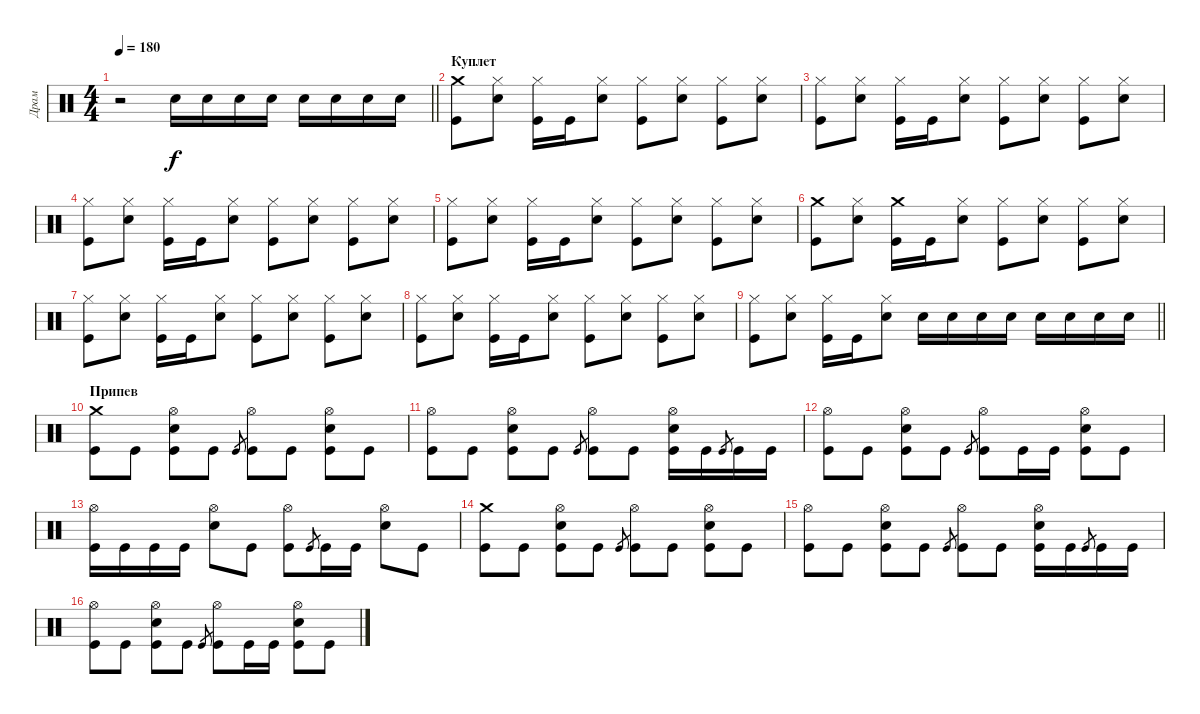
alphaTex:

\track ("Драм" "Драм") {instrument percussion}
\staff {score}
\articulation defaults
\ts (4 4)
\tempo 180
\clef neutral
\barLineRight lightlight
\ks c
r.2{dy f} "Electric Snare (hit)".16 "Electric Snare (hit)".16 "Electric Snare (hit)".16 "Electric Snare (hit)".16 "Electric Snare (hit)".16 "Electric Snare (hit)".16 "Electric Snare (hit)".16 "Electric Snare (hit)".16 |
\section ("" "Куплет")
("Kick (hit)" "Crash medium (hit)").8 ("Electric Snare (hit)" "Hi-Hat (closed)").8 ("Kick (hit)" "Hi-Hat (closed)").16 "Kick (hit)".16 ("Electric Snare (hit)" "Hi-Hat (closed)").8 ("Kick (hit)" "Hi-Hat (closed)").8 ("Electric Snare (hit)" "Hi-Hat (closed)").8 ("Kick (hit)" "Hi-Hat (closed)").8 ("Electric Snare (hit)" "Hi-Hat (closed)").8 |
("Kick (hit)" "Hi-Hat (closed)").8 ("Electric Snare (hit)" "Hi-Hat (closed)").8 ("Kick (hit)" "Hi-Hat (closed)").16 "Kick (hit)".16 ("Electric Snare (hit)" "Hi-Hat (closed)").8 ("Kick (hit)" "Hi-Hat (closed)").8 ("Electric Snare (hit)" "Hi-Hat (closed)").8 ("Kick (hit)" "Hi-Hat (closed)").8 ("Electric Snare (hit)" "Hi-Hat (closed)").8 |
("Kick (hit)" "Hi-Hat (closed)").8 ("Electric Snare (hit)" "Hi-Hat (closed)").8 ("Kick (hit)" "Hi-Hat (closed)").16 "Kick (hit)".16 ("Electric Snare (hit)" "Hi-Hat (closed)").8 ("Kick (hit)" "Hi-Hat (closed)").8 ("Electric Snare (hit)" "Hi-Hat (closed)").8 ("Kick (hit)" "Hi-Hat (closed)").8 ("Electric Snare (hit)" "Hi-Hat (closed)").8 |
("Kick (hit)" "Hi-Hat (closed)").8 ("Electric Snare (hit)" "Hi-Hat (closed)").8 ("Kick (hit)" "Hi-Hat (closed)").16 "Kick (hit)".16 ("Electric Snare (hit)" "Hi-Hat (closed)").8 ("Kick (hit)" "Hi-Hat (closed)").8 ("Electric Snare (hit)" "Hi-Hat (closed)").8 ("Kick (hit)" "Hi-Hat (closed)").8 ("Electric Snare (hit)" "Hi-Hat (closed)").8 |
("Kick (hit)" "Crash medium (hit)").8 ("Electric Snare (hit)" "Hi-Hat (closed)").8 ("Kick (hit)" "Crash medium (hit)").16 "Kick (hit)".16 ("Electric Snare (hit)" "Hi-Hat (closed)").8 ("Kick (hit)" "Hi-Hat (closed)").8 ("Electric Snare (hit)" "Hi-Hat (closed)").8 ("Kick (hit)" "Hi-Hat (closed)").8 ("Electric Snare (hit)" "Hi-Hat (closed)").8 |
("Kick (hit)" "Hi-Hat (closed)").8 ("Electric Snare (hit)" "Hi-Hat (closed)").8 ("Kick (hit)" "Hi-Hat (closed)").16 "Kick (hit)".16 ("Electric Snare (hit)" "Hi-Hat (closed)").8 ("Kick (hit)" "Hi-Hat (closed)").8 ("Electric Snare (hit)" "Hi-Hat (closed)").8 ("Kick (hit)" "Hi-Hat (closed)").8 ("Electric Snare (hit)" "Hi-Hat (closed)").8 |
("Kick (hit)" "Hi-Hat (closed)").8 ("Electric Snare (hit)" "Hi-Hat (closed)").8 ("Kick (hit)" "Hi-Hat (closed)").16 "Kick (hit)".16 ("Electric Snare (hit)" "Hi-Hat (closed)").8 ("Kick (hit)" "Hi-Hat (closed)").8 ("Electric Snare (hit)" "Hi-Hat (closed)").8 ("Kick (hit)" "Hi-Hat (closed)").8 ("Electric Snare (hit)" "Hi-Hat (closed)").8 |
\barLineRight lightlight
("Kick (hit)" "Hi-Hat (closed)").8 ("Electric Snare (hit)" "Hi-Hat (closed)").8 ("Kick (hit)" "Hi-Hat (closed)").16 "Kick (hit)".16 ("Electric Snare (hit)" "Hi-Hat (closed)").8 "Electric Snare (hit)".16 "Electric Snare (hit)".16 "Electric Snare (hit)".16 "Electric Snare (hit)".16 "Electric Snare (hit)".16 "Electric Snare (hit)".16 "Electric Snare (hit)".16 "Electric Snare (hit)".16 |
\section ("" "Припев")
("Kick (hit)" "Crash medium (hit)").8 "Kick (hit)".8 ("Kick (hit)" "Electric Snare (hit)" "Hi-Hat (open)").8 "Kick (hit)".8 "Kick (hit)".8{gr} ("Kick (hit)" "Hi-Hat (open)").8 "Kick (hit)".8 ("Kick (hit)" "Electric Snare (hit)" "Hi-Hat (open)").8 "Kick (hit)".8 |
("Kick (hit)" "Hi-Hat (open)").8 "Kick (hit)".8 ("Kick (hit)" "Electric Snare (hit)" "Hi-Hat (open)").8 "Kick (hit)".8 "Kick (hit)".8{gr} ("Kick (hit)" "Hi-Hat (open)").8 "Kick (hit)".8 ("Kick (hit)" "Electric Snare (hit)" "Hi-Hat (open)").16 "Kick (hit)".16 "Kick (hit)".8{gr} "Kick (hit)".16 "Kick (hit)".16 |
("Kick (hit)" "Hi-Hat (open)").8 "Kick (hit)".8 ("Kick (hit)" "Electric Snare (hit)" "Hi-Hat (open)").8 "Kick (hit)".8 "Kick (hit)".8{gr} ("Kick (hit)" "Hi-Hat (open)").8 "Kick (hit)".16 "Kick (hit)".16 ("Kick (hit)" "Electric Snare (hit)" "Hi-Hat (open)").8 "Kick (hit)".8 |
("Kick (hit)" "Hi-Hat (open)").16 "Kick (hit)".16 "Kick (hit)".16 "Kick (hit)".16 ("Electric Snare (hit)" "Hi-Hat (open)").8 "Kick (hit)".8 ("Kick (hit)" "Hi-Hat (open)").8 "Kick (hit)".8{gr} "Kick (hit)".16 "Kick (hit)".16 ("Electric Snare (hit)" "Hi-Hat (open)").8 "Kick (hit)".8 |
("Kick (hit)" "Crash medium (hit)").8 "Kick (hit)".8 ("Kick (hit)" "Electric Snare (hit)" "Hi-Hat (open)").8 "Kick (hit)".8 "Kick (hit)".8{gr} ("Kick (hit)" "Hi-Hat (open)").8 "Kick (hit)".8 ("Kick (hit)" "Electric Snare (hit)" "Hi-Hat (open)").8 "Kick (hit)".8 |
("Kick (hit)" "Hi-Hat (open)").8 "Kick (hit)".8 ("Kick (hit)" "Electric Snare (hit)" "Hi-Hat (open)").8 "Kick (hit)".8 "Kick (hit)".8{gr} ("Kick (hit)" "Hi-Hat (open)").8 "Kick (hit)".8 ("Kick (hit)" "Electric Snare (hit)" "Hi-Hat (open)").16 "Kick (hit)".16 "Kick (hit)".8{gr} "Kick (hit)".16 "Kick (hit)".16 |
("Kick (hit)" "Hi-Hat (open)").8 "Kick (hit)".8 ("Kick (hit)" "Electric Snare (hit)" "Hi-Hat (open)").8 "Kick (hit)".8 "Kick (hit)".8{gr} ("Kick (hit)" "Hi-Hat (open)").8 "Kick (hit)".16 "Kick (hit)".16 ("Kick (hit)" "Electric Snare (hit)" "Hi-Hat (open)").8 "Kick (hit)".8
